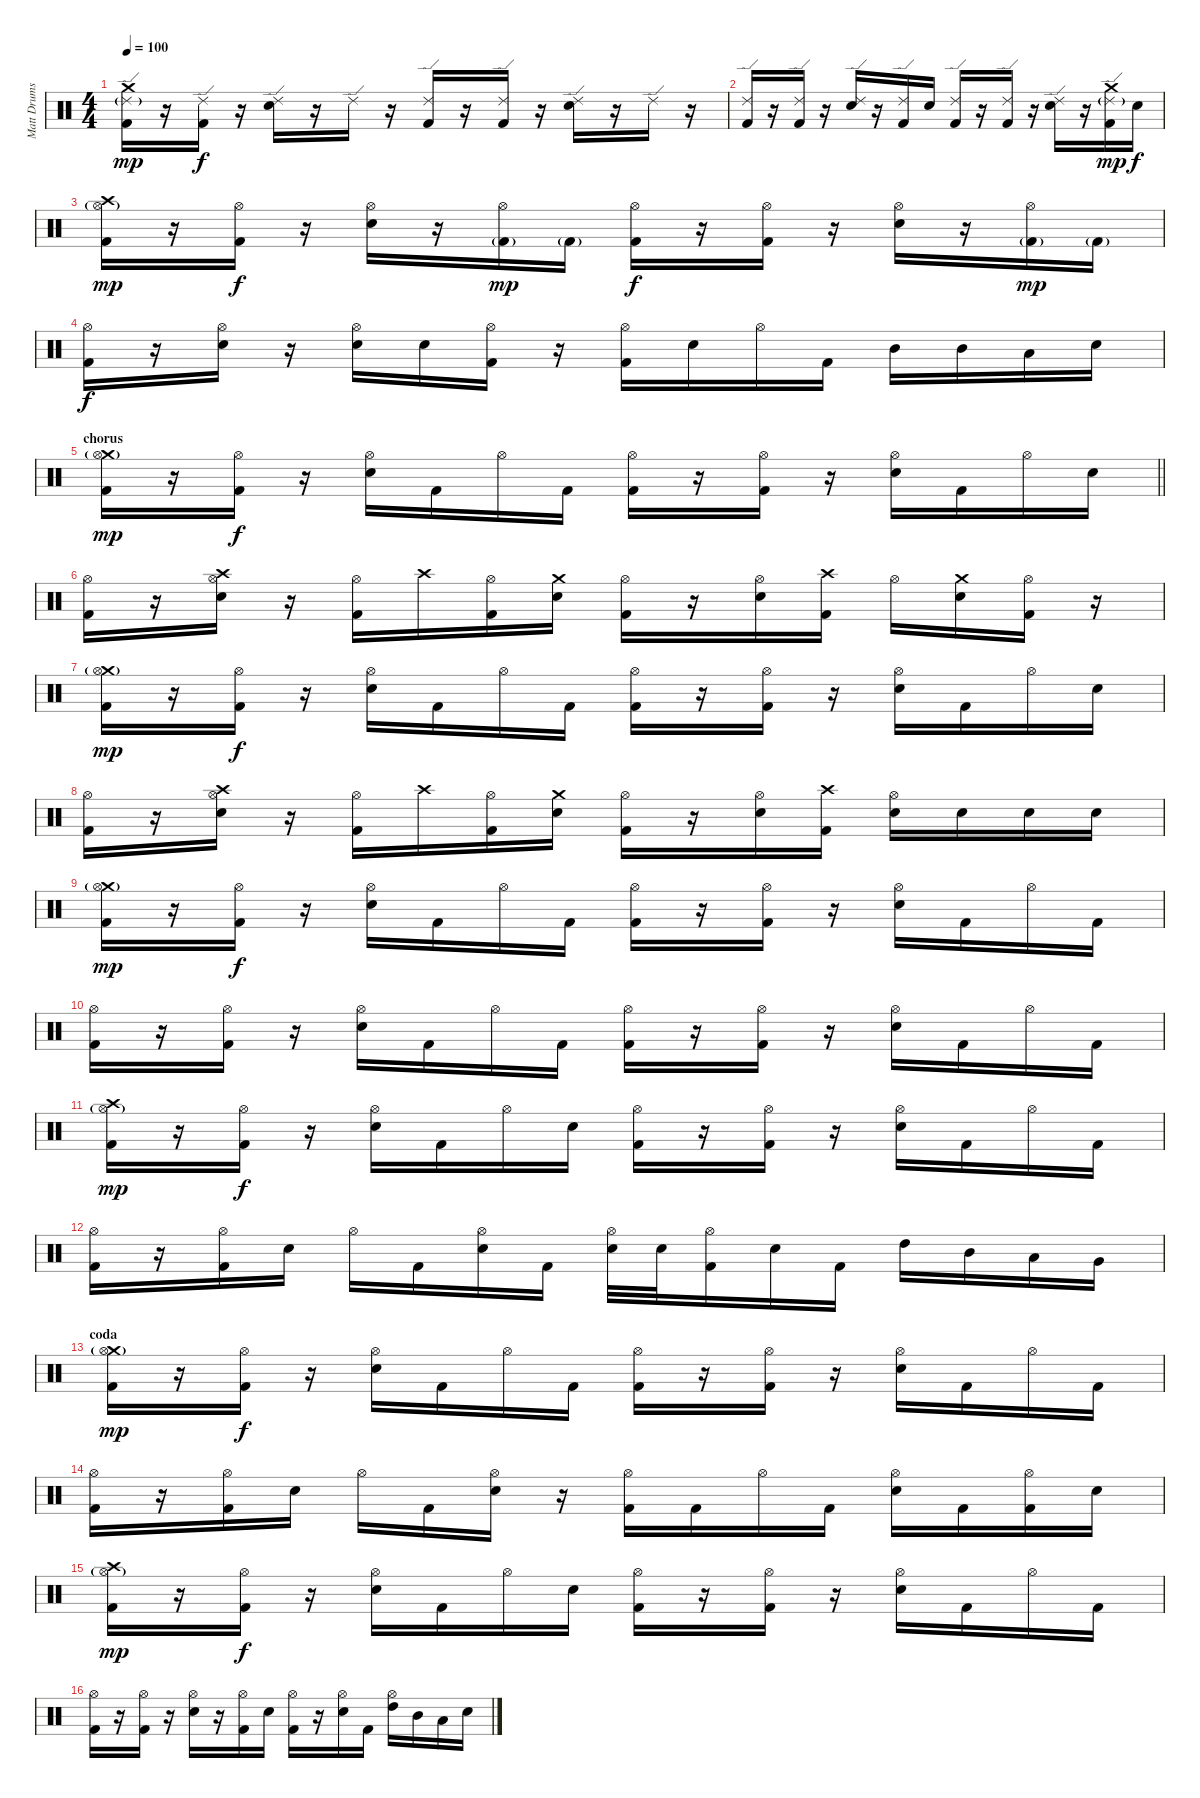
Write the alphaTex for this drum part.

\track ("Matt Drums" "Matt Drums") {instrument percussion}
\staff {score}
\articulation defaults
\ts (4 4)
\tempo 100
\clef neutral
\ks c
("Crash medium (hit)" "Ride (edge) 2"{g} "Kick (hit) 2").16{dy mp} r.16 ("Ride (edge) 2" "Kick (hit) 2").16{dy f} r.16 ("Ride (edge) 2" "Electric Snare (hit)").16 r.16 "Ride (edge) 2".16 r.16 ("Ride (edge) 2" "Kick (hit) 2").16 r.16 ("Ride (edge) 2" "Kick (hit) 2").16 r.16 ("Ride (edge) 2" "Electric Snare (hit)").16 r.16 "Ride (edge) 2".16 r.16 |
("Ride (edge) 2" "Kick (hit) 2").16 r.16 ("Ride (edge) 2" "Kick (hit) 2").16 r.16 ("Ride (edge) 2" "Electric Snare (hit)").16 r.16 ("Ride (edge) 2" "Kick (hit) 2").16 "Electric Snare (hit)".16 ("Ride (edge) 2" "Kick (hit) 2").16 r.16 ("Ride (edge) 2" "Kick (hit) 2").16 r.16 ("Ride (edge) 2" "Electric Snare (hit)").16 r.16 ("Crash medium (hit)" "Ride (edge) 2"{g} "Kick (hit) 2").16{dy mp} "Electric Snare (hit)".16{dy f} |
("Crash high (hit)" "Hi-Hat (open)"{g} "Kick (hit) 2").16{dy mp} r.16 ("Hi-Hat (open)" "Kick (hit) 2").16{dy f} r.16 ("Hi-Hat (open)" "Electric Snare (hit)").16 r.16 ("Hi-Hat (open)" "Kick (hit) 2"{g}).16{dy mp} "Kick (hit) 2"{g}.16 ("Hi-Hat (open)" "Kick (hit) 2").16{dy f} r.16 ("Hi-Hat (open)" "Kick (hit) 2").16 r.16 ("Hi-Hat (open)" "Electric Snare (hit)").16 r.16 ("Hi-Hat (open)" "Kick (hit) 2"{g}).16{dy mp} "Kick (hit) 2"{g}.16 |
("Hi-Hat (open)" "Kick (hit) 2").16{dy f} r.16 ("Hi-Hat (open)" "Electric Snare (hit)").16 r.16 ("Hi-Hat (open)" "Electric Snare (hit)").16 "Electric Snare (hit)".16 ("Hi-Hat (open)" "Kick (hit) 2").16 r.16 ("Hi-Hat (open)" "Kick (hit) 2").16 "Electric Snare (hit)".16 "Hi-Hat (open)".16 "Kick (hit) 2".16 "Mid Tom (hit)".16 "Mid Tom (hit)".16 "Low Floor Tom (hit)".16 "Electric Snare (hit)".16 |
\section ("" "chorus")
\barLineRight lightlight
("Crash medium (hit)" "Hi-Hat (open)"{g} "Kick (hit) 2").16{dy mp} r.16 ("Hi-Hat (open)" "Kick (hit) 2").16{dy f} r.16 ("Hi-Hat (open)" "Electric Snare (hit)").16 "Kick (hit) 2".16 "Hi-Hat (open)".16 "Kick (hit) 2".16 ("Hi-Hat (open)" "Kick (hit) 2").16 r.16 ("Hi-Hat (open)" "Kick (hit) 2").16 r.16 ("Hi-Hat (open)" "Electric Snare (hit)").16 "Kick (hit) 2".16 "Hi-Hat (open)".16 "Electric Snare (hit)".16 |
("Hi-Hat (open)" "Kick (hit) 2").16 r.16 ("Crash high (hit)" "Hi-Hat (open)" "Electric Snare (hit)").16 r.16 ("Hi-Hat (open)" "Kick (hit) 2").16 "Crash high (hit)".16 ("Hi-Hat (open)" "Kick (hit) 2").16 ("Crash medium (hit)" "Electric Snare (hit)").16 ("Hi-Hat (open)" "Kick (hit) 2").16 r.16 ("Hi-Hat (open)" "Electric Snare (hit)").16 ("Crash high (hit)" "Kick (hit) 2").16 "Hi-Hat (open)".16 ("Crash medium (hit)" "Electric Snare (hit)").16 ("Hi-Hat (open)" "Kick (hit) 2").16 r.16 |
("Crash medium (hit)" "Hi-Hat (open)"{g} "Kick (hit) 2").16{dy mp} r.16 ("Hi-Hat (open)" "Kick (hit) 2").16{dy f} r.16 ("Hi-Hat (open)" "Electric Snare (hit)").16 "Kick (hit) 2".16 "Hi-Hat (open)".16 "Kick (hit) 2".16 ("Hi-Hat (open)" "Kick (hit) 2").16 r.16 ("Hi-Hat (open)" "Kick (hit) 2").16 r.16 ("Hi-Hat (open)" "Electric Snare (hit)").16 "Kick (hit) 2".16 "Hi-Hat (open)".16 "Electric Snare (hit)".16 |
("Hi-Hat (open)" "Kick (hit) 2").16 r.16 ("Crash high (hit)" "Hi-Hat (open)" "Electric Snare (hit)").16 r.16 ("Hi-Hat (open)" "Kick (hit) 2").16 "Crash high (hit)".16 ("Hi-Hat (open)" "Kick (hit) 2").16 ("Crash medium (hit)" "Electric Snare (hit)").16 ("Hi-Hat (open)" "Kick (hit) 2").16 r.16 ("Hi-Hat (open)" "Electric Snare (hit)").16 ("Crash high (hit)" "Kick (hit) 2").16 ("Hi-Hat (open)" "Electric Snare (hit)").16 "Electric Snare (hit)".16 "Electric Snare (hit)".16 "Electric Snare (hit)".16 |
("Crash medium (hit)" "Hi-Hat (open)"{g} "Kick (hit) 2").16{dy mp} r.16 ("Hi-Hat (open)" "Kick (hit) 2").16{dy f} r.16 ("Hi-Hat (open)" "Electric Snare (hit)").16 "Kick (hit) 2".16 "Hi-Hat (open)".16 "Kick (hit) 2".16 ("Hi-Hat (open)" "Kick (hit) 2").16 r.16 ("Hi-Hat (open)" "Kick (hit) 2").16 r.16 ("Hi-Hat (open)" "Electric Snare (hit)").16 "Kick (hit) 2".16 "Hi-Hat (open)".16 "Kick (hit) 2".16 |
("Hi-Hat (open)" "Kick (hit) 2").16 r.16 ("Hi-Hat (open)" "Kick (hit) 2").16 r.16 ("Hi-Hat (open)" "Electric Snare (hit)").16 "Kick (hit) 2".16 "Hi-Hat (open)".16 "Kick (hit) 2".16 ("Hi-Hat (open)" "Kick (hit) 2").16 r.16 ("Hi-Hat (open)" "Kick (hit) 2").16 r.16 ("Hi-Hat (open)" "Electric Snare (hit)").16 "Kick (hit) 2".16 "Hi-Hat (open)".16 "Kick (hit) 2".16 |
("Crash high (hit)" "Hi-Hat (open)"{g} "Kick (hit) 2").16{dy mp} r.16 ("Hi-Hat (open)" "Kick (hit) 2").16{dy f} r.16 ("Hi-Hat (open)" "Electric Snare (hit)").16 "Kick (hit) 2".16 "Hi-Hat (open)".16 "Electric Snare (hit)".16 ("Hi-Hat (open)" "Kick (hit) 2").16 r.16 ("Hi-Hat (open)" "Kick (hit) 2").16 r.16 ("Hi-Hat (open)" "Electric Snare (hit)").16 "Kick (hit) 2".16 "Hi-Hat (open)".16 "Kick (hit) 2".16 |
("Hi-Hat (open)" "Kick (hit) 2").16 r.16 ("Hi-Hat (open)" "Kick (hit) 2").16 "Electric Snare (hit)".16 "Hi-Hat (open)".16 "Kick (hit) 2".16 ("Hi-Hat (open)" "Electric Snare (hit)").16 "Kick (hit) 2".16 ("Hi-Hat (open)" "Electric Snare (hit)").32 "Electric Snare (hit)".32 ("Hi-Hat (open)" "Kick (hit) 2").16 "Electric Snare (hit)".16 "Kick (hit) 2".16 "High Tom (hit)".16 "Mid Tom (hit)".16 "Low Tom (hit)".16 "Very Low Tom (hit)".16 |
\section ("" "coda")
("Crash medium (hit)" "Hi-Hat (open)"{g} "Kick (hit) 2").16{dy mp} r.16 ("Hi-Hat (open)" "Kick (hit) 2").16{dy f} r.16 ("Hi-Hat (open)" "Electric Snare (hit)").16 "Kick (hit) 2".16 "Hi-Hat (open)".16 "Kick (hit) 2".16 ("Hi-Hat (open)" "Kick (hit) 2").16 r.16 ("Hi-Hat (open)" "Kick (hit) 2").16 r.16 ("Hi-Hat (open)" "Electric Snare (hit)").16 "Kick (hit) 2".16 "Hi-Hat (open)".16 "Kick (hit) 2".16 |
("Hi-Hat (open)" "Kick (hit) 2").16 r.16 ("Hi-Hat (open)" "Kick (hit) 2").16 "Electric Snare (hit)".16 "Hi-Hat (open)".16 "Kick (hit) 2".16 ("Hi-Hat (open)" "Electric Snare (hit)").16 r.16 ("Hi-Hat (open)" "Kick (hit) 2").16 "Kick (hit) 2".16 "Hi-Hat (open)".16 "Kick (hit) 2".16 ("Hi-Hat (open)" "Electric Snare (hit)").16 "Kick (hit) 2".16 ("Hi-Hat (open)" "Kick (hit) 2").16 "Electric Snare (hit)".16 |
("Crash high (hit)" "Hi-Hat (open)"{g} "Kick (hit) 2").16{dy mp} r.16 ("Hi-Hat (open)" "Kick (hit) 2").16{dy f} r.16 ("Hi-Hat (open)" "Electric Snare (hit)").16 "Kick (hit) 2".16 "Hi-Hat (open)".16 "Electric Snare (hit)".16 ("Hi-Hat (open)" "Kick (hit) 2").16 r.16 ("Hi-Hat (open)" "Kick (hit) 2").16 r.16 ("Hi-Hat (open)" "Electric Snare (hit)").16 "Kick (hit) 2".16 "Hi-Hat (open)".16 "Kick (hit) 2".16 |
("Hi-Hat (open)" "Kick (hit) 2").16 r.16 ("Hi-Hat (open)" "Kick (hit) 2").16 r.16 ("Hi-Hat (open)" "Electric Snare (hit)").16 r.16 ("Hi-Hat (open)" "Kick (hit) 2").16 "Electric Snare (hit)".16 ("Hi-Hat (open)" "Kick (hit) 2").16 r.16 ("Hi-Hat (open)" "Electric Snare (hit)").16 "Kick (hit) 2".16 ("Hi-Hat (open)" "High Tom (hit)").16 "Mid Tom (hit)".16 "Low Tom (hit)".16 "Electric Snare (hit)".16
